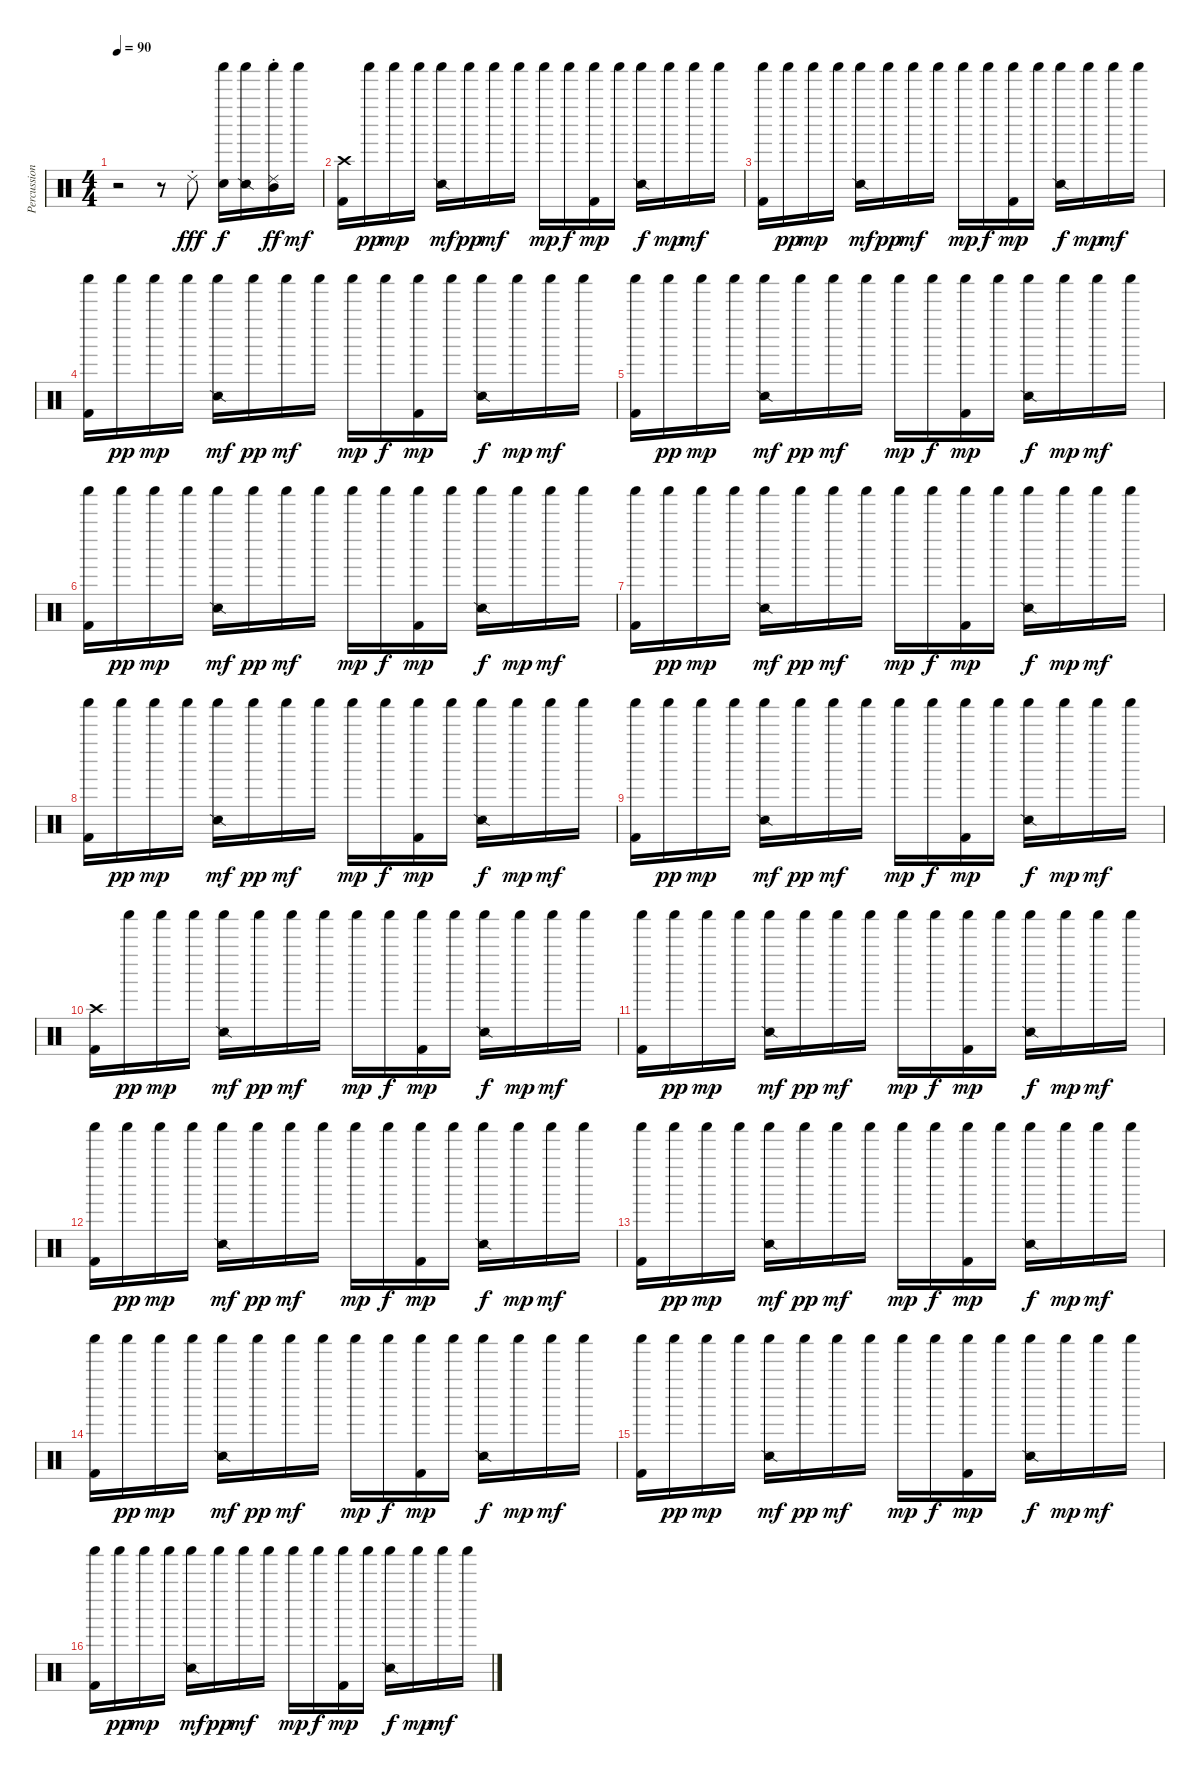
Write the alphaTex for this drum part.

\track ("Percussions" "Percussion") {instrument percussion}
\staff {score}
\articulation defaults
\ts (4 4)
\tempo 90
\clef neutral
\ks c
r.2{dy f} r.8 "Ride (choke) 2".8{dy fff} ("Shaker (hit)" "Metronome (bell)").16{dy f} ("Shaker (hit)" "Snare (side stick) 2").16 ("Shaker (hit)" "Ride (choke) 2" "Mid Tom (hit)").16{dy ff} "Shaker (hit)".16{dy mf} |
("Crash high (hit)" "Kick (hit) 2").16 "Shaker (hit)".16{dy pp} "Shaker (hit)".16{dy mp} "Shaker (hit)".16 ("Shaker (hit)" "Snare (side stick) 2").16{dy mf} "Shaker (hit)".16{dy pp} "Shaker (hit)".16{dy mf} "Shaker (hit)".16 "Shaker (hit)".16{dy mp} "Shaker (hit)".16{dy f} ("Shaker (hit)" "Kick (hit) 2").16{dy mp} "Shaker (hit)".16 ("Shaker (hit)" "Snare (side stick) 2").16{dy f} "Shaker (hit)".16{dy mp} "Shaker (hit)".16{dy mf} "Shaker (hit)".16 |
("Shaker (hit)" "Kick (hit) 2").16 "Shaker (hit)".16{dy pp} "Shaker (hit)".16{dy mp} "Shaker (hit)".16 ("Shaker (hit)" "Snare (side stick) 2").16{dy mf} "Shaker (hit)".16{dy pp} "Shaker (hit)".16{dy mf} "Shaker (hit)".16 "Shaker (hit)".16{dy mp} "Shaker (hit)".16{dy f} ("Shaker (hit)" "Kick (hit) 2").16{dy mp} "Shaker (hit)".16 ("Shaker (hit)" "Snare (side stick) 2").16{dy f} "Shaker (hit)".16{dy mp} "Shaker (hit)".16{dy mf} "Shaker (hit)".16 |
("Shaker (hit)" "Kick (hit) 2").16 "Shaker (hit)".16{dy pp} "Shaker (hit)".16{dy mp} "Shaker (hit)".16 ("Shaker (hit)" "Snare (side stick) 2").16{dy mf} "Shaker (hit)".16{dy pp} "Shaker (hit)".16{dy mf} "Shaker (hit)".16 "Shaker (hit)".16{dy mp} "Shaker (hit)".16{dy f} ("Shaker (hit)" "Kick (hit) 2").16{dy mp} "Shaker (hit)".16 ("Shaker (hit)" "Snare (side stick) 2").16{dy f} "Shaker (hit)".16{dy mp} "Shaker (hit)".16{dy mf} "Shaker (hit)".16 |
("Shaker (hit)" "Kick (hit) 2").16 "Shaker (hit)".16{dy pp} "Shaker (hit)".16{dy mp} "Shaker (hit)".16 ("Shaker (hit)" "Snare (side stick) 2").16{dy mf} "Shaker (hit)".16{dy pp} "Shaker (hit)".16{dy mf} "Shaker (hit)".16 "Shaker (hit)".16{dy mp} "Shaker (hit)".16{dy f} ("Shaker (hit)" "Kick (hit) 2").16{dy mp} "Shaker (hit)".16 ("Shaker (hit)" "Snare (side stick) 2").16{dy f} "Shaker (hit)".16{dy mp} "Shaker (hit)".16{dy mf} "Shaker (hit)".16 |
("Shaker (hit)" "Kick (hit) 2").16 "Shaker (hit)".16{dy pp} "Shaker (hit)".16{dy mp} "Shaker (hit)".16 ("Shaker (hit)" "Snare (side stick) 2").16{dy mf} "Shaker (hit)".16{dy pp} "Shaker (hit)".16{dy mf} "Shaker (hit)".16 "Shaker (hit)".16{dy mp} "Shaker (hit)".16{dy f} ("Shaker (hit)" "Kick (hit) 2").16{dy mp} "Shaker (hit)".16 ("Shaker (hit)" "Snare (side stick) 2").16{dy f} "Shaker (hit)".16{dy mp} "Shaker (hit)".16{dy mf} "Shaker (hit)".16 |
("Shaker (hit)" "Kick (hit) 2").16 "Shaker (hit)".16{dy pp} "Shaker (hit)".16{dy mp} "Shaker (hit)".16 ("Shaker (hit)" "Snare (side stick) 2").16{dy mf} "Shaker (hit)".16{dy pp} "Shaker (hit)".16{dy mf} "Shaker (hit)".16 "Shaker (hit)".16{dy mp} "Shaker (hit)".16{dy f} ("Shaker (hit)" "Kick (hit) 2").16{dy mp} "Shaker (hit)".16 ("Shaker (hit)" "Snare (side stick) 2").16{dy f} "Shaker (hit)".16{dy mp} "Shaker (hit)".16{dy mf} "Shaker (hit)".16 |
("Shaker (hit)" "Kick (hit) 2").16 "Shaker (hit)".16{dy pp} "Shaker (hit)".16{dy mp} "Shaker (hit)".16 ("Shaker (hit)" "Snare (side stick) 2").16{dy mf} "Shaker (hit)".16{dy pp} "Shaker (hit)".16{dy mf} "Shaker (hit)".16 "Shaker (hit)".16{dy mp} "Shaker (hit)".16{dy f} ("Shaker (hit)" "Kick (hit) 2").16{dy mp} "Shaker (hit)".16 ("Shaker (hit)" "Snare (side stick) 2").16{dy f} "Shaker (hit)".16{dy mp} "Shaker (hit)".16{dy mf} "Shaker (hit)".16 |
("Shaker (hit)" "Kick (hit) 2").16 "Shaker (hit)".16{dy pp} "Shaker (hit)".16{dy mp} "Shaker (hit)".16 ("Shaker (hit)" "Snare (side stick) 2").16{dy mf} "Shaker (hit)".16{dy pp} "Shaker (hit)".16{dy mf} "Shaker (hit)".16 "Shaker (hit)".16{dy mp} "Shaker (hit)".16{dy f} ("Shaker (hit)" "Kick (hit) 2").16{dy mp} "Shaker (hit)".16 ("Shaker (hit)" "Snare (side stick) 2").16{dy f} "Shaker (hit)".16{dy mp} "Shaker (hit)".16{dy mf} "Shaker (hit)".16 |
("Crash high (hit)" "Kick (hit) 2").16 "Shaker (hit)".16{dy pp} "Shaker (hit)".16{dy mp} "Shaker (hit)".16 ("Shaker (hit)" "Snare (side stick) 2").16{dy mf} "Shaker (hit)".16{dy pp} "Shaker (hit)".16{dy mf} "Shaker (hit)".16 "Shaker (hit)".16{dy mp} "Shaker (hit)".16{dy f} ("Shaker (hit)" "Kick (hit) 2").16{dy mp} "Shaker (hit)".16 ("Shaker (hit)" "Snare (side stick) 2").16{dy f} "Shaker (hit)".16{dy mp} "Shaker (hit)".16{dy mf} "Shaker (hit)".16 |
("Shaker (hit)" "Kick (hit) 2").16 "Shaker (hit)".16{dy pp} "Shaker (hit)".16{dy mp} "Shaker (hit)".16 ("Shaker (hit)" "Snare (side stick) 2").16{dy mf} "Shaker (hit)".16{dy pp} "Shaker (hit)".16{dy mf} "Shaker (hit)".16 "Shaker (hit)".16{dy mp} "Shaker (hit)".16{dy f} ("Shaker (hit)" "Kick (hit) 2").16{dy mp} "Shaker (hit)".16 ("Shaker (hit)" "Snare (side stick) 2").16{dy f} "Shaker (hit)".16{dy mp} "Shaker (hit)".16{dy mf} "Shaker (hit)".16 |
("Shaker (hit)" "Kick (hit) 2").16 "Shaker (hit)".16{dy pp} "Shaker (hit)".16{dy mp} "Shaker (hit)".16 ("Shaker (hit)" "Snare (side stick) 2").16{dy mf} "Shaker (hit)".16{dy pp} "Shaker (hit)".16{dy mf} "Shaker (hit)".16 "Shaker (hit)".16{dy mp} "Shaker (hit)".16{dy f} ("Shaker (hit)" "Kick (hit) 2").16{dy mp} "Shaker (hit)".16 ("Shaker (hit)" "Snare (side stick) 2").16{dy f} "Shaker (hit)".16{dy mp} "Shaker (hit)".16{dy mf} "Shaker (hit)".16 |
("Shaker (hit)" "Kick (hit) 2").16 "Shaker (hit)".16{dy pp} "Shaker (hit)".16{dy mp} "Shaker (hit)".16 ("Shaker (hit)" "Snare (side stick) 2").16{dy mf} "Shaker (hit)".16{dy pp} "Shaker (hit)".16{dy mf} "Shaker (hit)".16 "Shaker (hit)".16{dy mp} "Shaker (hit)".16{dy f} ("Shaker (hit)" "Kick (hit) 2").16{dy mp} "Shaker (hit)".16 ("Shaker (hit)" "Snare (side stick) 2").16{dy f} "Shaker (hit)".16{dy mp} "Shaker (hit)".16{dy mf} "Shaker (hit)".16 |
("Shaker (hit)" "Kick (hit) 2").16 "Shaker (hit)".16{dy pp} "Shaker (hit)".16{dy mp} "Shaker (hit)".16 ("Shaker (hit)" "Snare (side stick) 2").16{dy mf} "Shaker (hit)".16{dy pp} "Shaker (hit)".16{dy mf} "Shaker (hit)".16 "Shaker (hit)".16{dy mp} "Shaker (hit)".16{dy f} ("Shaker (hit)" "Kick (hit) 2").16{dy mp} "Shaker (hit)".16 ("Shaker (hit)" "Snare (side stick) 2").16{dy f} "Shaker (hit)".16{dy mp} "Shaker (hit)".16{dy mf} "Shaker (hit)".16 |
("Shaker (hit)" "Kick (hit) 2").16 "Shaker (hit)".16{dy pp} "Shaker (hit)".16{dy mp} "Shaker (hit)".16 ("Shaker (hit)" "Snare (side stick) 2").16{dy mf} "Shaker (hit)".16{dy pp} "Shaker (hit)".16{dy mf} "Shaker (hit)".16 "Shaker (hit)".16{dy mp} "Shaker (hit)".16{dy f} ("Shaker (hit)" "Kick (hit) 2").16{dy mp} "Shaker (hit)".16 ("Shaker (hit)" "Snare (side stick) 2").16{dy f} "Shaker (hit)".16{dy mp} "Shaker (hit)".16{dy mf} "Shaker (hit)".16 |
("Shaker (hit)" "Kick (hit) 2").16 "Shaker (hit)".16{dy pp} "Shaker (hit)".16{dy mp} "Shaker (hit)".16 ("Shaker (hit)" "Snare (side stick) 2").16{dy mf} "Shaker (hit)".16{dy pp} "Shaker (hit)".16{dy mf} "Shaker (hit)".16 "Shaker (hit)".16{dy mp} "Shaker (hit)".16{dy f} ("Shaker (hit)" "Kick (hit) 2").16{dy mp} "Shaker (hit)".16 ("Shaker (hit)" "Snare (side stick) 2").16{dy f} "Shaker (hit)".16{dy mp} "Shaker (hit)".16{dy mf} "Shaker (hit)".16
